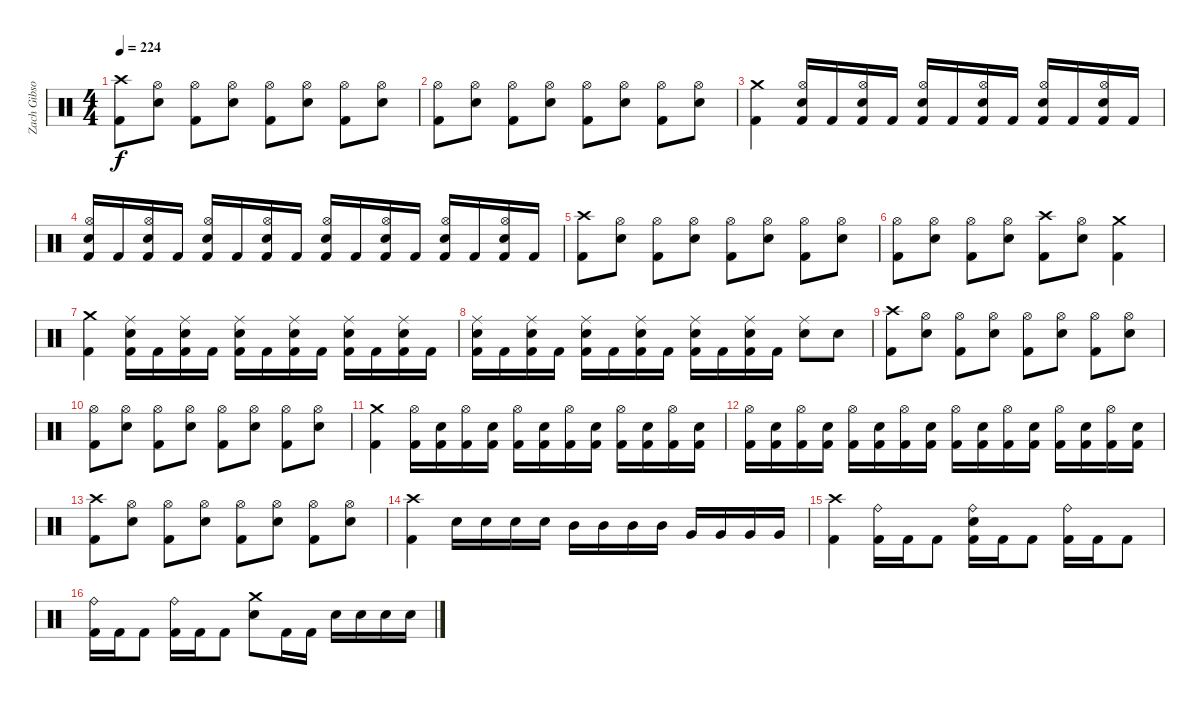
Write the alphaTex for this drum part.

\track ("Zach Gibson (Drums)" "Zach Gibso") {instrument percussion}
\staff {score}
\articulation defaults
\ts (4 4)
\tempo 224
\clef neutral
\ks c
("Crash high (hit)" "Kick (hit) 2").8{dy f} ("Hi-Hat (open)" "Snare (hit) 2").8 ("Hi-Hat (open)" "Kick (hit) 2").8 ("Hi-Hat (open)" "Snare (hit) 2").8 ("Hi-Hat (open)" "Kick (hit) 2").8 ("Hi-Hat (open)" "Snare (hit) 2").8 ("Hi-Hat (open)" "Kick (hit) 2").8 ("Hi-Hat (open)" "Snare (hit) 2").8 |
("Hi-Hat (open)" "Kick (hit) 2").8 ("Hi-Hat (open)" "Snare (hit) 2").8 ("Hi-Hat (open)" "Kick (hit) 2").8 ("Hi-Hat (open)" "Snare (hit) 2").8 ("Hi-Hat (open)" "Kick (hit) 2").8 ("Hi-Hat (open)" "Snare (hit) 2").8 ("Hi-Hat (open)" "Kick (hit) 2").8 ("Hi-Hat (open)" "Snare (hit) 2").8 |
("Crash medium (hit)" "Kick (hit) 2").4 ("Hi-Hat (open)" "Kick (hit) 2" "Snare (hit) 2").16 "Kick (hit) 2".16 ("Hi-Hat (open)" "Kick (hit) 2" "Snare (hit) 2").16 "Kick (hit) 2".16 ("Hi-Hat (open)" "Kick (hit) 2" "Snare (hit) 2").16 "Kick (hit) 2".16 ("Hi-Hat (open)" "Kick (hit) 2" "Snare (hit) 2").16 "Kick (hit) 2".16 ("Hi-Hat (open)" "Kick (hit) 2" "Snare (hit) 2").16 "Kick (hit) 2".16 ("Hi-Hat (open)" "Kick (hit) 2" "Snare (hit) 2").16 "Kick (hit) 2".16 |
("Hi-Hat (open)" "Kick (hit) 2" "Snare (hit) 2").16 "Kick (hit) 2".16 ("Hi-Hat (open)" "Kick (hit) 2" "Snare (hit) 2").16 "Kick (hit) 2".16 ("Hi-Hat (open)" "Kick (hit) 2" "Snare (hit) 2").16 "Kick (hit) 2".16 ("Hi-Hat (open)" "Kick (hit) 2" "Snare (hit) 2").16 "Kick (hit) 2".16 ("Hi-Hat (open)" "Kick (hit) 2" "Snare (hit) 2").16 "Kick (hit) 2".16 ("Hi-Hat (open)" "Kick (hit) 2" "Snare (hit) 2").16 "Kick (hit) 2".16 ("Hi-Hat (open)" "Kick (hit) 2" "Snare (hit) 2").16 "Kick (hit) 2".16 ("Hi-Hat (open)" "Kick (hit) 2" "Snare (hit) 2").16 "Kick (hit) 2".16 |
("Crash high (hit)" "Kick (hit) 2").8 ("Hi-Hat (open)" "Snare (hit) 2").8 ("Hi-Hat (open)" "Kick (hit) 2").8 ("Hi-Hat (open)" "Snare (hit) 2").8 ("Hi-Hat (open)" "Kick (hit) 2").8 ("Hi-Hat (open)" "Snare (hit) 2").8 ("Hi-Hat (open)" "Kick (hit) 2").8 ("Hi-Hat (open)" "Snare (hit) 2").8 |
("Hi-Hat (open)" "Kick (hit) 2").8 ("Hi-Hat (open)" "Snare (hit) 2").8 ("Hi-Hat (open)" "Kick (hit) 2").8 ("Hi-Hat (open)" "Snare (hit) 2").8 ("Crash high (hit)" "Kick (hit) 2").8 ("Hi-Hat (open)" "Snare (hit) 2").8 ("Crash medium (hit)" "Kick (hit) 2").4 |
("Crash medium (hit)" "Kick (hit) 2").4 ("Ride (middle)" "Kick (hit) 2" "Snare (hit) 2").16 "Kick (hit) 2".16 ("Ride (middle)" "Kick (hit) 2" "Snare (hit) 2").16 "Kick (hit) 2".16 ("Ride (middle)" "Kick (hit) 2" "Snare (hit) 2").16 "Kick (hit) 2".16 ("Ride (middle)" "Kick (hit) 2" "Snare (hit) 2").16 "Kick (hit) 2".16 ("Ride (middle)" "Kick (hit) 2" "Snare (hit) 2").16 "Kick (hit) 2".16 ("Ride (middle)" "Kick (hit) 2" "Snare (hit) 2").16 "Kick (hit) 2".16 |
("Ride (middle)" "Kick (hit) 2" "Snare (hit) 2").16 "Kick (hit) 2".16 ("Ride (middle)" "Kick (hit) 2" "Snare (hit) 2").16 "Kick (hit) 2".16 ("Ride (middle)" "Kick (hit) 2" "Snare (hit) 2").16 "Kick (hit) 2".16 ("Ride (middle)" "Kick (hit) 2" "Snare (hit) 2").16 "Kick (hit) 2".16 ("Ride (middle)" "Kick (hit) 2" "Snare (hit) 2").16 "Kick (hit) 2".16 ("Ride (middle)" "Kick (hit) 2" "Snare (hit) 2").16 "Kick (hit) 2".16 ("Ride (middle)" "Snare (hit) 2").8 "Snare (hit) 2".8 |
("Crash high (hit)" "Kick (hit) 2").8 ("Hi-Hat (open)" "Snare (hit) 2").8 ("Hi-Hat (open)" "Kick (hit) 2").8 ("Hi-Hat (open)" "Snare (hit) 2").8 ("Hi-Hat (open)" "Kick (hit) 2").8 ("Hi-Hat (open)" "Snare (hit) 2").8 ("Hi-Hat (open)" "Kick (hit) 2").8 ("Hi-Hat (open)" "Snare (hit) 2").8 |
("Hi-Hat (open)" "Kick (hit) 2").8 ("Hi-Hat (open)" "Snare (hit) 2").8 ("Hi-Hat (open)" "Kick (hit) 2").8 ("Hi-Hat (open)" "Snare (hit) 2").8 ("Hi-Hat (open)" "Kick (hit) 2").8 ("Hi-Hat (open)" "Snare (hit) 2").8 ("Hi-Hat (open)" "Kick (hit) 2").8 ("Hi-Hat (open)" "Snare (hit) 2").8 |
("Crash medium (hit)" "Kick (hit) 2").4 ("Hi-Hat (open)" "Kick (hit) 2").16 ("Snare (hit) 2" "Kick (hit) 2").16 ("Hi-Hat (open)" "Kick (hit) 2").16 ("Snare (hit) 2" "Kick (hit) 2").16 ("Hi-Hat (open)" "Kick (hit) 2").16 ("Snare (hit) 2" "Kick (hit) 2").16 ("Hi-Hat (open)" "Kick (hit) 2").16 ("Snare (hit) 2" "Kick (hit) 2").16 ("Hi-Hat (open)" "Kick (hit) 2").16 ("Snare (hit) 2" "Kick (hit) 2").16 ("Hi-Hat (open)" "Kick (hit) 2").16 ("Snare (hit) 2" "Kick (hit) 2").16 |
("Hi-Hat (open)" "Kick (hit) 2").16 ("Snare (hit) 2" "Kick (hit) 2").16 ("Hi-Hat (open)" "Kick (hit) 2").16 ("Snare (hit) 2" "Kick (hit) 2").16 ("Hi-Hat (open)" "Kick (hit) 2").16 ("Snare (hit) 2" "Kick (hit) 2").16 ("Hi-Hat (open)" "Kick (hit) 2").16 ("Snare (hit) 2" "Kick (hit) 2").16 ("Hi-Hat (open)" "Kick (hit) 2").16 ("Snare (hit) 2" "Kick (hit) 2").16 ("Hi-Hat (open)" "Kick (hit) 2").16 ("Snare (hit) 2" "Kick (hit) 2").16 ("Hi-Hat (open)" "Kick (hit) 2").16 ("Snare (hit) 2" "Kick (hit) 2").16 ("Hi-Hat (open)" "Kick (hit) 2").16 ("Snare (hit) 2" "Kick (hit) 2").16 |
("Crash high (hit)" "Kick (hit) 2").8 ("Hi-Hat (open)" "Snare (hit) 2").8 ("Hi-Hat (open)" "Kick (hit) 2").8 ("Hi-Hat (open)" "Snare (hit) 2").8 ("Hi-Hat (open)" "Kick (hit) 2").8 ("Hi-Hat (open)" "Snare (hit) 2").8 ("Hi-Hat (open)" "Kick (hit) 2").8 ("Hi-Hat (open)" "Snare (hit) 2").8 |
("Crash high (hit)" "Kick (hit) 2").4 "Snare (hit) 2".16 "Snare (hit) 2".16 "Snare (hit) 2".16 "Snare (hit) 2".16 "Mid Tom (hit)".16 "Mid Tom (hit)".16 "Mid Tom (hit)".16 "Mid Tom (hit)".16 "Very Low Tom (hit)".16 "Very Low Tom (hit)".16 "Very Low Tom (hit)".16 "Very Low Tom (hit)".16 |
("Crash high (hit)" "Kick (hit) 2").4 ("Ride (bell)" "Kick (hit) 2").16 "Kick (hit) 2".16 "Kick (hit) 2".8 ("Snare (hit) 2" "Ride (bell)" "Kick (hit) 2").16 "Kick (hit) 2".16 "Kick (hit) 2".8 ("Ride (bell)" "Kick (hit) 2").16 "Kick (hit) 2".16 "Kick (hit) 2".8 |
("Ride (bell)" "Kick (hit) 2").16 "Kick (hit) 2".16 "Kick (hit) 2".8 ("Ride (bell)" "Kick (hit) 2").16 "Kick (hit) 2".16 "Kick (hit) 2".8 ("Crash medium (hit)" "Snare (hit) 2").8 "Kick (hit) 2".16 "Kick (hit) 2".16 "Snare (hit) 2".16 "Snare (hit) 2".16 "Snare (hit) 2".16 "Snare (hit) 2".16
